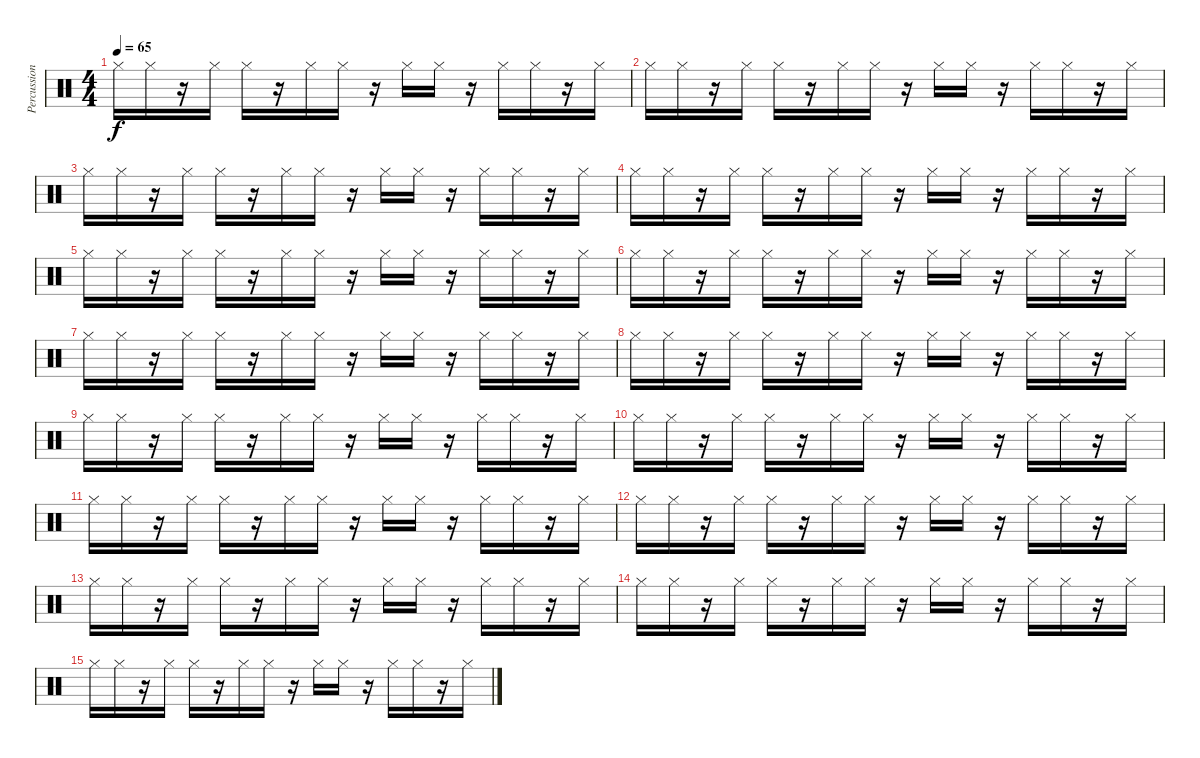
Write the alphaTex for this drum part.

\track ("Percussions" "Percussion") {instrument percussion}
\staff {score}
\articulation defaults
\ts (4 4)
\tempo 65
\clef neutral
\ks c "Hi-Hat (closed)".16{dy f volume 12 balance 12} "Hi-Hat (closed)".16
r.16{balance 14} "Hi-Hat (closed)".16 "Hi-Hat (closed)".16 r.16{balance 16} "Hi-Hat (closed)".16 "Hi-Hat (closed)".16 r.16{balance 6} "Hi-Hat (closed)".16 "Hi-Hat (closed)".16 r.16{volume 12 balance 8} "Hi-Hat (closed)".16 "Hi-Hat (closed)".16 r.16{balance 10} "Hi-Hat (closed)".16 |
"Hi-Hat (closed)".16{volume 12 balance 0} "Hi-Hat (closed)".16 r.16{balance 2} "Hi-Hat (closed)".16 "Hi-Hat (closed)".16 r.16{balance 4} "Hi-Hat (closed)".16 "Hi-Hat (closed)".16 r.16{balance 6} "Hi-Hat (closed)".16 "Hi-Hat (closed)".16 r.16{volume 12 balance 8} "Hi-Hat (closed)".16 "Hi-Hat (closed)".16 r.16{balance 10} "Hi-Hat (closed)".16 |
"Hi-Hat (closed)".16{volume 12 balance 12} "Hi-Hat (closed)".16 r.16{balance 14} "Hi-Hat (closed)".16 "Hi-Hat (closed)".16 r.16{balance 16} "Hi-Hat (closed)".16 "Hi-Hat (closed)".16 r.16{balance 6} "Hi-Hat (closed)".16 "Hi-Hat (closed)".16 r.16{volume 12 balance 8} "Hi-Hat (closed)".16 "Hi-Hat (closed)".16 r.16{balance 10} "Hi-Hat (closed)".16 |
"Hi-Hat (closed)".16{volume 12 balance 0} "Hi-Hat (closed)".16 r.16{balance 2} "Hi-Hat (closed)".16 "Hi-Hat (closed)".16 r.16{balance 4} "Hi-Hat (closed)".16 "Hi-Hat (closed)".16 r.16{balance 6} "Hi-Hat (closed)".16 "Hi-Hat (closed)".16 r.16{volume 12 balance 8} "Hi-Hat (closed)".16 "Hi-Hat (closed)".16 r.16{balance 10} "Hi-Hat (closed)".16 |
"Hi-Hat (closed)".16{volume 12 balance 12} "Hi-Hat (closed)".16 r.16{balance 14} "Hi-Hat (closed)".16 "Hi-Hat (closed)".16 r.16{balance 16} "Hi-Hat (closed)".16 "Hi-Hat (closed)".16 r.16{balance 6} "Hi-Hat (closed)".16 "Hi-Hat (closed)".16 r.16{volume 12 balance 8} "Hi-Hat (closed)".16 "Hi-Hat (closed)".16 r.16{balance 10} "Hi-Hat (closed)".16 |
"Hi-Hat (closed)".16{volume 12 balance 0} "Hi-Hat (closed)".16 r.16{balance 2} "Hi-Hat (closed)".16 "Hi-Hat (closed)".16 r.16{balance 4} "Hi-Hat (closed)".16 "Hi-Hat (closed)".16 r.16{balance 6} "Hi-Hat (closed)".16 "Hi-Hat (closed)".16 r.16{volume 12 balance 8} "Hi-Hat (closed)".16 "Hi-Hat (closed)".16 r.16{balance 10} "Hi-Hat (closed)".16 |
"Hi-Hat (closed)".16{volume 12 balance 12} "Hi-Hat (closed)".16 r.16{balance 14} "Hi-Hat (closed)".16 "Hi-Hat (closed)".16 r.16{balance 16} "Hi-Hat (closed)".16 "Hi-Hat (closed)".16 r.16{balance 6} "Hi-Hat (closed)".16 "Hi-Hat (closed)".16 r.16{volume 12 balance 8} "Hi-Hat (closed)".16 "Hi-Hat (closed)".16 r.16{balance 10} "Hi-Hat (closed)".16 |
"Hi-Hat (closed)".16{volume 12 balance 0} "Hi-Hat (closed)".16 r.16{balance 2} "Hi-Hat (closed)".16 "Hi-Hat (closed)".16 r.16{balance 4} "Hi-Hat (closed)".16 "Hi-Hat (closed)".16 r.16{balance 6} "Hi-Hat (closed)".16 "Hi-Hat (closed)".16 r.16{volume 12 balance 8} "Hi-Hat (closed)".16 "Hi-Hat (closed)".16 r.16{balance 10} "Hi-Hat (closed)".16 |
"Hi-Hat (closed)".16{volume 12 balance 12} "Hi-Hat (closed)".16 r.16{balance 14} "Hi-Hat (closed)".16 "Hi-Hat (closed)".16 r.16{balance 16} "Hi-Hat (closed)".16 "Hi-Hat (closed)".16 r.16{balance 6} "Hi-Hat (closed)".16 "Hi-Hat (closed)".16 r.16{volume 12 balance 8} "Hi-Hat (closed)".16 "Hi-Hat (closed)".16 r.16{balance 10} "Hi-Hat (closed)".16 |
"Hi-Hat (closed)".16{volume 12 balance 0} "Hi-Hat (closed)".16 r.16{balance 2} "Hi-Hat (closed)".16 "Hi-Hat (closed)".16 r.16{balance 4} "Hi-Hat (closed)".16 "Hi-Hat (closed)".16 r.16{balance 6} "Hi-Hat (closed)".16 "Hi-Hat (closed)".16 r.16{volume 12 balance 8} "Hi-Hat (closed)".16 "Hi-Hat (closed)".16 r.16{balance 10} "Hi-Hat (closed)".16 |
"Hi-Hat (closed)".16{volume 12 balance 12} "Hi-Hat (closed)".16 r.16{balance 14} "Hi-Hat (closed)".16 "Hi-Hat (closed)".16 r.16{balance 16} "Hi-Hat (closed)".16 "Hi-Hat (closed)".16 r.16{balance 6} "Hi-Hat (closed)".16 "Hi-Hat (closed)".16 r.16{volume 12 balance 8} "Hi-Hat (closed)".16 "Hi-Hat (closed)".16 r.16{balance 10} "Hi-Hat (closed)".16 |
"Hi-Hat (closed)".16{volume 12 balance 0} "Hi-Hat (closed)".16 r.16{balance 2} "Hi-Hat (closed)".16 "Hi-Hat (closed)".16 r.16{balance 4} "Hi-Hat (closed)".16 "Hi-Hat (closed)".16 r.16{balance 6} "Hi-Hat (closed)".16 "Hi-Hat (closed)".16 r.16{volume 12 balance 8} "Hi-Hat (closed)".16 "Hi-Hat (closed)".16 r.16{balance 10} "Hi-Hat (closed)".16 |
"Hi-Hat (closed)".16{volume 12 balance 12} "Hi-Hat (closed)".16 r.16{balance 14} "Hi-Hat (closed)".16 "Hi-Hat (closed)".16 r.16{balance 16} "Hi-Hat (closed)".16 "Hi-Hat (closed)".16 r.16{balance 6} "Hi-Hat (closed)".16 "Hi-Hat (closed)".16 r.16{volume 12 balance 8} "Hi-Hat (closed)".16 "Hi-Hat (closed)".16 r.16{balance 10} "Hi-Hat (closed)".16 |
"Hi-Hat (closed)".16{volume 12 balance 0} "Hi-Hat (closed)".16 r.16{balance 2} "Hi-Hat (closed)".16 "Hi-Hat (closed)".16 r.16{balance 4} "Hi-Hat (closed)".16 "Hi-Hat (closed)".16 r.16{balance 6} "Hi-Hat (closed)".16 "Hi-Hat (closed)".16 r.16{volume 12 balance 8} "Hi-Hat (closed)".16 "Hi-Hat (closed)".16 r.16{balance 10} "Hi-Hat (closed)".16 |
"Hi-Hat (closed)".16{volume 12 balance 12} "Hi-Hat (closed)".16 r.16{balance 14} "Hi-Hat (closed)".16 "Hi-Hat (closed)".16 r.16{balance 16} "Hi-Hat (closed)".16 "Hi-Hat (closed)".16 r.16{balance 6} "Hi-Hat (closed)".16 "Hi-Hat (closed)".16 r.16{volume 12 balance 8} "Hi-Hat (closed)".16 "Hi-Hat (closed)".16 r.16{balance 10} "Hi-Hat (closed)".16
